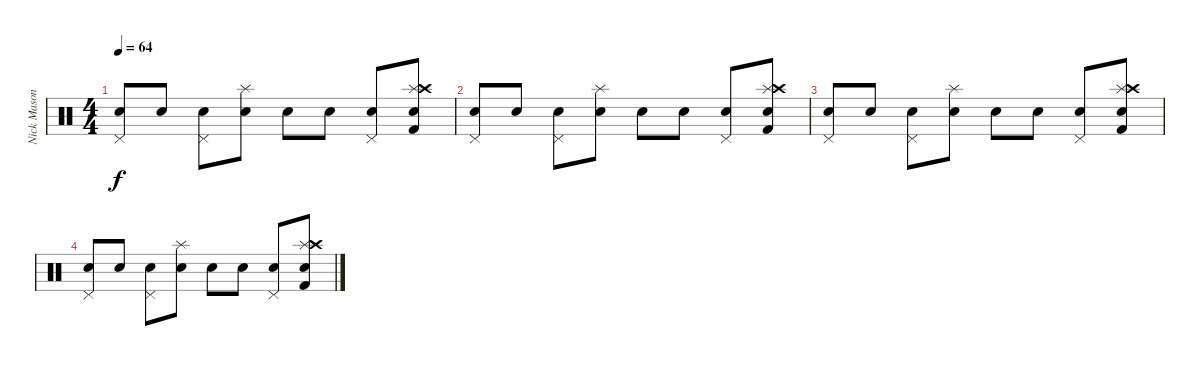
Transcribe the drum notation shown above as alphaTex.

\track ("Nick Mason" "Nick Mason") {instrument percussion}
\staff {score}
\articulation defaults
\ts (4 4)
\tempo 64
\clef neutral
\ks c
("Pedal Hi-Hat (hit)" "Snare (hit) 2").8{dy f} "Electric Snare (hit)".8 ("Pedal Hi-Hat (hit)" "Snare (hit) 2").8 ("Splash (hit)" "Electric Snare (hit)").8 "Snare (hit) 2".8 "Electric Snare (hit)".8 ("Pedal Hi-Hat (hit)" "Snare (hit) 2").8 ("Splash (hit)" "Crash high (hit)" "Electric Snare (hit)" "Kick (hit) 2").8 |
("Pedal Hi-Hat (hit)" "Snare (hit) 2").8 "Electric Snare (hit)".8 ("Pedal Hi-Hat (hit)" "Snare (hit) 2").8 ("Splash (hit)" "Electric Snare (hit)").8 "Snare (hit) 2".8 "Electric Snare (hit)".8 ("Pedal Hi-Hat (hit)" "Snare (hit) 2").8 ("Splash (hit)" "Crash high (hit)" "Electric Snare (hit)" "Kick (hit) 2").8 |
("Pedal Hi-Hat (hit)" "Snare (hit) 2").8 "Electric Snare (hit)".8 ("Pedal Hi-Hat (hit)" "Snare (hit) 2").8 ("Splash (hit)" "Electric Snare (hit)").8 "Snare (hit) 2".8 "Electric Snare (hit)".8 ("Pedal Hi-Hat (hit)" "Snare (hit) 2").8 ("Splash (hit)" "Crash high (hit)" "Electric Snare (hit)" "Kick (hit) 2").8 |
("Pedal Hi-Hat (hit)" "Snare (hit) 2").8 "Electric Snare (hit)".8 ("Pedal Hi-Hat (hit)" "Snare (hit) 2").8 ("Splash (hit)" "Electric Snare (hit)").8 "Snare (hit) 2".8 "Electric Snare (hit)".8 ("Pedal Hi-Hat (hit)" "Snare (hit) 2").8 ("Splash (hit)" "Crash high (hit)" "Electric Snare (hit)" "Kick (hit) 2").8
